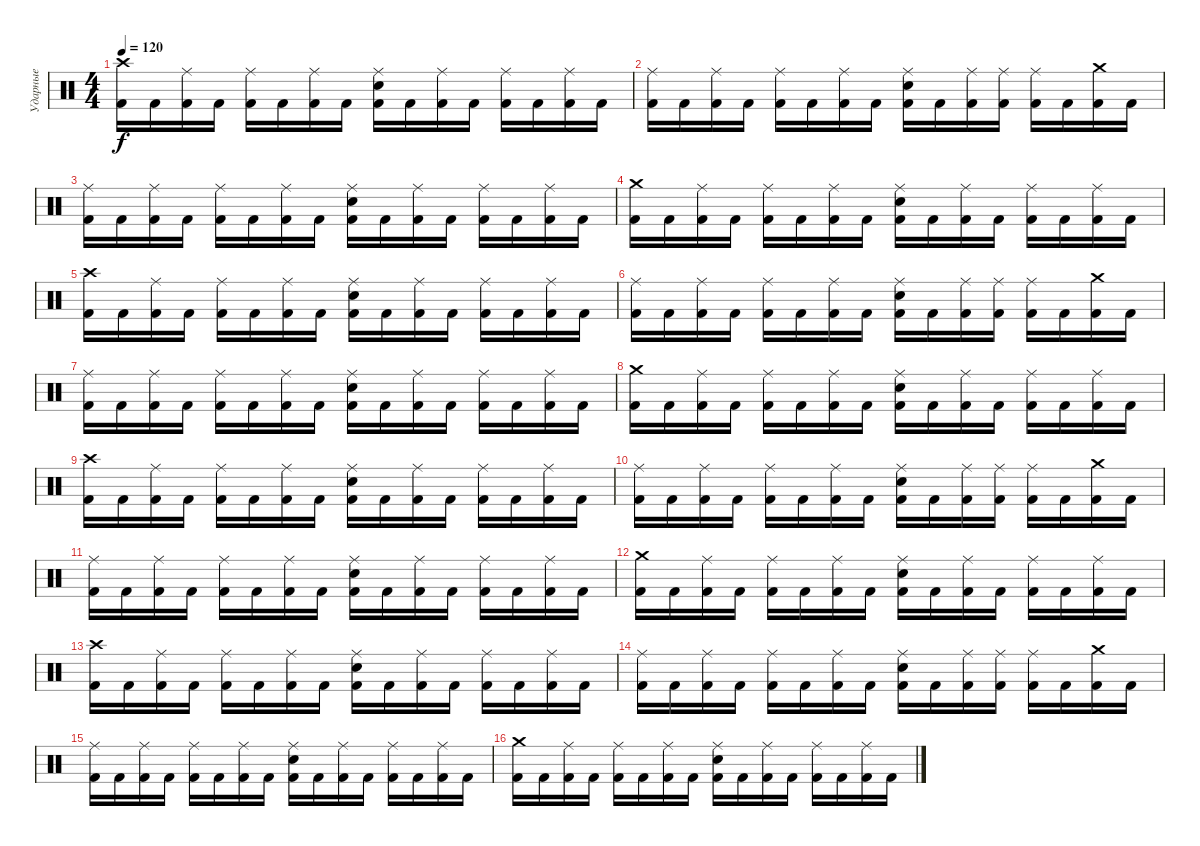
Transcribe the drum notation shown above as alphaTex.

\track ("Ударные" "Ударные") {instrument percussion}
\staff {score}
\articulation defaults
\ts (4 4)
\tempo 120
\clef neutral
\ks c
("Crash high (hit)" "Kick (hit) 2").16{dy f} "Kick (hit) 2".16 ("Ride (middle)" "Kick (hit) 2").16 "Kick (hit) 2".16 ("Ride (middle)" "Kick (hit) 2").16 "Kick (hit) 2".16 ("Ride (middle)" "Kick (hit) 2").16 "Kick (hit) 2".16 ("Ride (middle)" "Snare (hit) 2" "Kick (hit) 2").16 "Kick (hit) 2".16 ("Ride (middle)" "Kick (hit) 2").16 "Kick (hit) 2".16 ("Ride (middle)" "Kick (hit) 2").16 "Kick (hit) 2".16 ("Ride (middle)" "Kick (hit) 2").16 "Kick (hit) 2".16 |
("Ride (middle)" "Kick (hit) 2").16 "Kick (hit) 2".16 ("Ride (middle)" "Kick (hit) 2").16 "Kick (hit) 2".16 ("Ride (middle)" "Kick (hit) 2").16 "Kick (hit) 2".16 ("Ride (middle)" "Kick (hit) 2").16 "Kick (hit) 2".16 ("Ride (middle)" "Snare (hit) 2" "Kick (hit) 2").16 "Kick (hit) 2".16 ("Ride (middle)" "Kick (hit) 2").16 ("Ride (middle)" "Kick (hit) 2").16 ("Ride (middle)" "Kick (hit) 2").16 "Kick (hit) 2".16 ("Crash medium (hit)" "Kick (hit) 2").16 "Kick (hit) 2".16 |
("Ride (middle)" "Kick (hit) 2").16 "Kick (hit) 2".16 ("Ride (middle)" "Kick (hit) 2").16 "Kick (hit) 2".16 ("Ride (middle)" "Kick (hit) 2").16 "Kick (hit) 2".16 ("Ride (middle)" "Kick (hit) 2").16 "Kick (hit) 2".16 ("Ride (middle)" "Snare (hit) 2" "Kick (hit) 2").16 "Kick (hit) 2".16 ("Ride (middle)" "Kick (hit) 2").16 "Kick (hit) 2".16 ("Ride (middle)" "Kick (hit) 2").16 "Kick (hit) 2".16 ("Ride (middle)" "Kick (hit) 2").16 "Kick (hit) 2".16 |
("Crash medium (hit)" "Kick (hit) 2").16 "Kick (hit) 2".16 ("Ride (middle)" "Kick (hit) 2").16 "Kick (hit) 2".16 ("Ride (middle)" "Kick (hit) 2").16 "Kick (hit) 2".16 ("Ride (middle)" "Kick (hit) 2").16 "Kick (hit) 2".16 ("Ride (middle)" "Snare (hit) 2" "Kick (hit) 2").16 "Kick (hit) 2".16 ("Ride (middle)" "Kick (hit) 2").16 "Kick (hit) 2".16 ("Ride (middle)" "Kick (hit) 2").16 "Kick (hit) 2".16 ("Ride (middle)" "Kick (hit) 2").16 "Kick (hit) 2".16 |
("Crash high (hit)" "Kick (hit) 2").16 "Kick (hit) 2".16 ("Ride (middle)" "Kick (hit) 2").16 "Kick (hit) 2".16 ("Ride (middle)" "Kick (hit) 2").16 "Kick (hit) 2".16 ("Ride (middle)" "Kick (hit) 2").16 "Kick (hit) 2".16 ("Ride (middle)" "Snare (hit) 2" "Kick (hit) 2").16 "Kick (hit) 2".16 ("Ride (middle)" "Kick (hit) 2").16 "Kick (hit) 2".16 ("Ride (middle)" "Kick (hit) 2").16 "Kick (hit) 2".16 ("Ride (middle)" "Kick (hit) 2").16 "Kick (hit) 2".16 |
("Ride (middle)" "Kick (hit) 2").16 "Kick (hit) 2".16 ("Ride (middle)" "Kick (hit) 2").16 "Kick (hit) 2".16 ("Ride (middle)" "Kick (hit) 2").16 "Kick (hit) 2".16 ("Ride (middle)" "Kick (hit) 2").16 "Kick (hit) 2".16 ("Ride (middle)" "Snare (hit) 2" "Kick (hit) 2").16 "Kick (hit) 2".16 ("Ride (middle)" "Kick (hit) 2").16 ("Ride (middle)" "Kick (hit) 2").16 ("Ride (middle)" "Kick (hit) 2").16 "Kick (hit) 2".16 ("Crash medium (hit)" "Kick (hit) 2").16 "Kick (hit) 2".16 |
("Ride (middle)" "Kick (hit) 2").16 "Kick (hit) 2".16 ("Ride (middle)" "Kick (hit) 2").16 "Kick (hit) 2".16 ("Ride (middle)" "Kick (hit) 2").16 "Kick (hit) 2".16 ("Ride (middle)" "Kick (hit) 2").16 "Kick (hit) 2".16 ("Ride (middle)" "Snare (hit) 2" "Kick (hit) 2").16 "Kick (hit) 2".16 ("Ride (middle)" "Kick (hit) 2").16 "Kick (hit) 2".16 ("Ride (middle)" "Kick (hit) 2").16 "Kick (hit) 2".16 ("Ride (middle)" "Kick (hit) 2").16 "Kick (hit) 2".16 |
("Crash medium (hit)" "Kick (hit) 2").16 "Kick (hit) 2".16 ("Ride (middle)" "Kick (hit) 2").16 "Kick (hit) 2".16 ("Ride (middle)" "Kick (hit) 2").16 "Kick (hit) 2".16 ("Ride (middle)" "Kick (hit) 2").16 "Kick (hit) 2".16 ("Ride (middle)" "Snare (hit) 2" "Kick (hit) 2").16 "Kick (hit) 2".16 ("Ride (middle)" "Kick (hit) 2").16 "Kick (hit) 2".16 ("Ride (middle)" "Kick (hit) 2").16 "Kick (hit) 2".16 ("Ride (middle)" "Kick (hit) 2").16 "Kick (hit) 2".16 |
("Crash high (hit)" "Kick (hit) 2").16 "Kick (hit) 2".16 ("Ride (middle)" "Kick (hit) 2").16 "Kick (hit) 2".16 ("Ride (middle)" "Kick (hit) 2").16 "Kick (hit) 2".16 ("Ride (middle)" "Kick (hit) 2").16 "Kick (hit) 2".16 ("Ride (middle)" "Snare (hit) 2" "Kick (hit) 2").16 "Kick (hit) 2".16 ("Ride (middle)" "Kick (hit) 2").16 "Kick (hit) 2".16 ("Ride (middle)" "Kick (hit) 2").16 "Kick (hit) 2".16 ("Ride (middle)" "Kick (hit) 2").16 "Kick (hit) 2".16 |
("Ride (middle)" "Kick (hit) 2").16 "Kick (hit) 2".16 ("Ride (middle)" "Kick (hit) 2").16 "Kick (hit) 2".16 ("Ride (middle)" "Kick (hit) 2").16 "Kick (hit) 2".16 ("Ride (middle)" "Kick (hit) 2").16 "Kick (hit) 2".16 ("Ride (middle)" "Snare (hit) 2" "Kick (hit) 2").16 "Kick (hit) 2".16 ("Ride (middle)" "Kick (hit) 2").16 ("Ride (middle)" "Kick (hit) 2").16 ("Ride (middle)" "Kick (hit) 2").16 "Kick (hit) 2".16 ("Crash medium (hit)" "Kick (hit) 2").16 "Kick (hit) 2".16 |
("Ride (middle)" "Kick (hit) 2").16 "Kick (hit) 2".16 ("Ride (middle)" "Kick (hit) 2").16 "Kick (hit) 2".16 ("Ride (middle)" "Kick (hit) 2").16 "Kick (hit) 2".16 ("Ride (middle)" "Kick (hit) 2").16 "Kick (hit) 2".16 ("Ride (middle)" "Snare (hit) 2" "Kick (hit) 2").16 "Kick (hit) 2".16 ("Ride (middle)" "Kick (hit) 2").16 "Kick (hit) 2".16 ("Ride (middle)" "Kick (hit) 2").16 "Kick (hit) 2".16 ("Ride (middle)" "Kick (hit) 2").16 "Kick (hit) 2".16 |
("Crash medium (hit)" "Kick (hit) 2").16 "Kick (hit) 2".16 ("Ride (middle)" "Kick (hit) 2").16 "Kick (hit) 2".16 ("Ride (middle)" "Kick (hit) 2").16 "Kick (hit) 2".16 ("Ride (middle)" "Kick (hit) 2").16 "Kick (hit) 2".16 ("Ride (middle)" "Snare (hit) 2" "Kick (hit) 2").16 "Kick (hit) 2".16 ("Ride (middle)" "Kick (hit) 2").16 "Kick (hit) 2".16 ("Ride (middle)" "Kick (hit) 2").16 "Kick (hit) 2".16 ("Ride (middle)" "Kick (hit) 2").16 "Kick (hit) 2".16 |
("Crash high (hit)" "Kick (hit) 2").16 "Kick (hit) 2".16 ("Ride (middle)" "Kick (hit) 2").16 "Kick (hit) 2".16 ("Ride (middle)" "Kick (hit) 2").16 "Kick (hit) 2".16 ("Ride (middle)" "Kick (hit) 2").16 "Kick (hit) 2".16 ("Ride (middle)" "Snare (hit) 2" "Kick (hit) 2").16 "Kick (hit) 2".16 ("Ride (middle)" "Kick (hit) 2").16 "Kick (hit) 2".16 ("Ride (middle)" "Kick (hit) 2").16 "Kick (hit) 2".16 ("Ride (middle)" "Kick (hit) 2").16 "Kick (hit) 2".16 |
("Ride (middle)" "Kick (hit) 2").16 "Kick (hit) 2".16 ("Ride (middle)" "Kick (hit) 2").16 "Kick (hit) 2".16 ("Ride (middle)" "Kick (hit) 2").16 "Kick (hit) 2".16 ("Ride (middle)" "Kick (hit) 2").16 "Kick (hit) 2".16 ("Ride (middle)" "Snare (hit) 2" "Kick (hit) 2").16 "Kick (hit) 2".16 ("Ride (middle)" "Kick (hit) 2").16 ("Ride (middle)" "Kick (hit) 2").16 ("Ride (middle)" "Kick (hit) 2").16 "Kick (hit) 2".16 ("Crash medium (hit)" "Kick (hit) 2").16 "Kick (hit) 2".16 |
("Ride (middle)" "Kick (hit) 2").16 "Kick (hit) 2".16 ("Ride (middle)" "Kick (hit) 2").16 "Kick (hit) 2".16 ("Ride (middle)" "Kick (hit) 2").16 "Kick (hit) 2".16 ("Ride (middle)" "Kick (hit) 2").16 "Kick (hit) 2".16 ("Ride (middle)" "Snare (hit) 2" "Kick (hit) 2").16 "Kick (hit) 2".16 ("Ride (middle)" "Kick (hit) 2").16 "Kick (hit) 2".16 ("Ride (middle)" "Kick (hit) 2").16 "Kick (hit) 2".16 ("Ride (middle)" "Kick (hit) 2").16 "Kick (hit) 2".16 |
("Crash medium (hit)" "Kick (hit) 2").16 "Kick (hit) 2".16 ("Ride (middle)" "Kick (hit) 2").16 "Kick (hit) 2".16 ("Ride (middle)" "Kick (hit) 2").16 "Kick (hit) 2".16 ("Ride (middle)" "Kick (hit) 2").16 "Kick (hit) 2".16 ("Ride (middle)" "Snare (hit) 2" "Kick (hit) 2").16 "Kick (hit) 2".16 ("Ride (middle)" "Kick (hit) 2").16 "Kick (hit) 2".16 ("Ride (middle)" "Kick (hit) 2").16 "Kick (hit) 2".16 ("Ride (middle)" "Kick (hit) 2").16 "Kick (hit) 2".16
